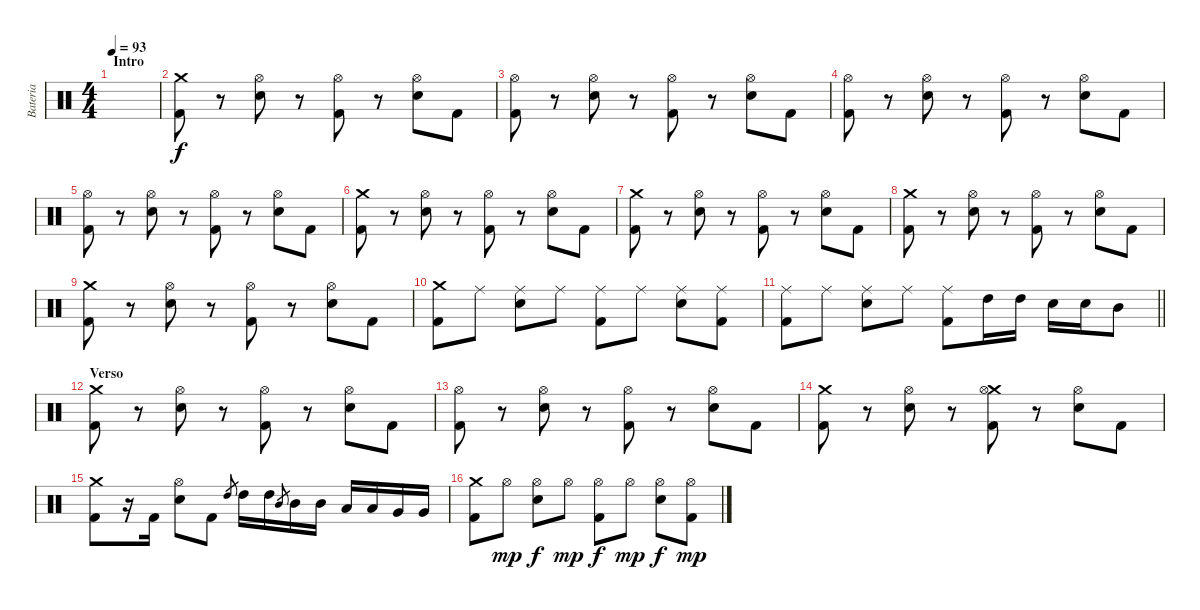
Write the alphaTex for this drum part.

\track ("Bateria" "Bateria") {instrument percussion}
\staff {score}
\articulation defaults
\ts (4 4)
\section ("" "Intro")
\tempo 93
\clef neutral
\ks c
|
("Crash medium (hit)" "Kick (hit) 2").8 r.8 ("Snare (hit) 2" "Hi-Hat (open)").8 r.8 ("Kick (hit) 2" "Hi-Hat (open)").8 r.8 ("Snare (hit) 2" "Hi-Hat (open)").8 "Kick (hit) 2".8 |
("Hi-Hat (open)" "Kick (hit) 2").8 r.8 ("Snare (hit) 2" "Hi-Hat (open)").8 r.8 ("Kick (hit) 2" "Hi-Hat (open)").8 r.8 ("Snare (hit) 2" "Hi-Hat (open)").8 "Kick (hit) 2".8 |
("Hi-Hat (open)" "Kick (hit) 2").8 r.8 ("Snare (hit) 2" "Hi-Hat (open)").8 r.8 ("Kick (hit) 2" "Hi-Hat (open)").8 r.8 ("Snare (hit) 2" "Hi-Hat (open)").8 "Kick (hit) 2".8 |
("Hi-Hat (open)" "Kick (hit) 2").8 r.8 ("Snare (hit) 2" "Hi-Hat (open)").8 r.8 ("Kick (hit) 2" "Hi-Hat (open)").8 r.8 ("Snare (hit) 2" "Hi-Hat (open)").8 "Kick (hit) 2".8 |
("Crash medium (hit)" "Kick (hit) 2").8 r.8 ("Snare (hit) 2" "Hi-Hat (open)").8 r.8 ("Kick (hit) 2" "Hi-Hat (open)").8 r.8 ("Snare (hit) 2" "Hi-Hat (open)").8 "Kick (hit) 2".8 |
("Crash medium (hit)" "Kick (hit) 2").8 r.8 ("Snare (hit) 2" "Hi-Hat (open)").8 r.8 ("Kick (hit) 2" "Hi-Hat (open)").8 r.8 ("Snare (hit) 2" "Hi-Hat (open)").8 "Kick (hit) 2".8 |
("Crash medium (hit)" "Kick (hit) 2").8 r.8 ("Snare (hit) 2" "Hi-Hat (open)").8 r.8 ("Kick (hit) 2" "Hi-Hat (open)").8 r.8 ("Snare (hit) 2" "Hi-Hat (open)").8 "Kick (hit) 2".8 |
("Crash medium (hit)" "Kick (hit) 2").8 r.8 ("Snare (hit) 2" "Hi-Hat (open)").8 r.8 ("Kick (hit) 2" "Hi-Hat (open)").8 r.8 ("Snare (hit) 2" "Hi-Hat (open)").8 "Kick (hit) 2".8 |
("Crash medium (hit)" "Kick (hit) 2").8 "Ride (middle)".8 ("Snare (hit) 2" "Ride (middle)").8 "Ride (middle)".8 ("Kick (hit) 2" "Ride (middle)").8 "Ride (middle)".8 ("Snare (hit) 2" "Ride (middle)").8 ("Kick (hit) 2" "Ride (middle)").8 |
\barLineRight lightlight
("Ride (middle)" "Kick (hit) 2").8 "Ride (middle)".8 ("Snare (hit) 2" "Ride (middle)").8 "Ride (middle)".8 ("Kick (hit) 2" "Ride (middle)").8 "High Tom (hit)".16 "High Tom (hit)".16 "Snare (hit) 2".16 "Snare (hit) 2".16 "Mid Tom (hit)".8 |
\section ("" "Verso")
("Crash medium (hit)" "Kick (hit) 2").8 r.8 ("Snare (hit) 2" "Hi-Hat (open)").8 r.8 ("Kick (hit) 2" "Hi-Hat (open)").8 r.8 ("Snare (hit) 2" "Hi-Hat (open)").8 "Kick (hit) 2".8 |
("Hi-Hat (open)" "Kick (hit) 2").8 r.8 ("Snare (hit) 2" "Hi-Hat (open)").8 r.8 ("Kick (hit) 2" "Hi-Hat (open)").8 r.8 ("Snare (hit) 2" "Hi-Hat (open)").8 "Kick (hit) 2".8 |
("Crash medium (hit)" "Kick (hit) 2").8 r.8 ("Snare (hit) 2" "Hi-Hat (open)").8 r.8 ("Crash medium (hit)" "Kick (hit) 2" "Hi-Hat (open)").8 r.8 ("Snare (hit) 2" "Hi-Hat (open)").8 "Kick (hit) 2".8 |
("Crash medium (hit)" "Kick (hit) 2").8 r.16 "Kick (hit) 2".16 ("Snare (hit) 2" "Hi-Hat (open)").8 "Kick (hit) 2".8 "High Tom (hit)".8{gr} "High Tom (hit)".16 "High Tom (hit)".16 "Mid Tom (hit)".8{gr} "Mid Tom (hit)".16 "Mid Tom (hit)".16 "Low Tom (hit)".16 "Low Tom (hit)".16 "Very Low Tom (hit)".16 "Very Low Tom (hit)".16 |
("Crash medium (hit)" "Kick (hit) 2").8 "Hi-Hat (open)".8{dy mp} ("Snare (hit) 2" "Hi-Hat (open)").8{dy f} "Hi-Hat (open)".8{dy mp} ("Kick (hit) 2" "Hi-Hat (open)").8{dy f} "Hi-Hat (open)".8{dy mp} ("Snare (hit) 2" "Hi-Hat (open)").8{dy f} ("Kick (hit) 2" "Hi-Hat (open)").8{dy mp}
